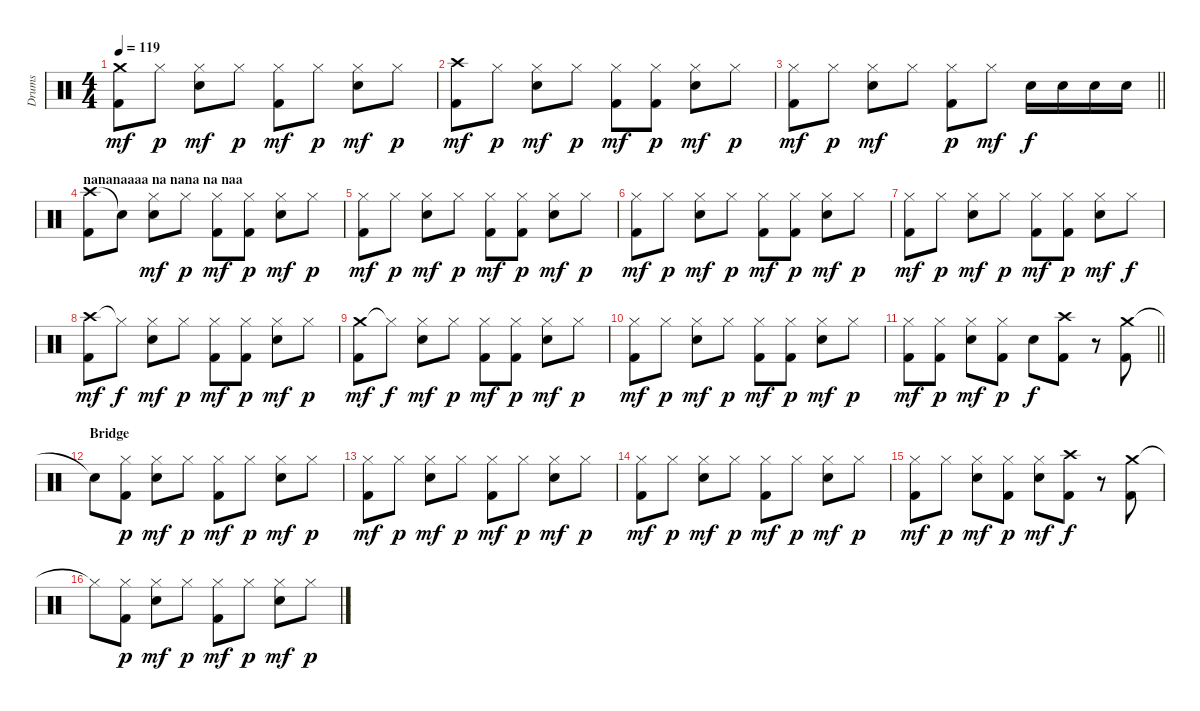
\track ("Drums" "Drums") {instrument percussion}
\staff {score}
\articulation defaults
\ts (4 4)
\tempo 119
\clef neutral
\ks c
("Crash medium (hit)" "Kick (hit) 2").8{dy mf} "Hi-Hat (closed)".8{dy p} ("Hi-Hat (closed)" "Electric Snare (hit)").8{dy mf} "Hi-Hat (closed)".8{dy p} ("Hi-Hat (closed)" "Kick (hit) 2").8{dy mf} "Hi-Hat (closed)".8{dy p} ("Hi-Hat (closed)" "Electric Snare (hit)").8{dy mf} "Hi-Hat (closed)".8{dy p} |
("Crash high (hit)" "Kick (hit) 2").8{dy mf} "Hi-Hat (closed)".8{dy p} ("Hi-Hat (closed)" "Electric Snare (hit)").8{dy mf} "Hi-Hat (closed)".8{dy p} ("Hi-Hat (closed)" "Kick (hit) 2").8{dy mf} ("Hi-Hat (closed)" "Kick (hit) 2").8{dy p} ("Hi-Hat (closed)" "Electric Snare (hit)").8{dy mf} "Hi-Hat (closed)".8{dy p} |
\barLineRight lightlight
("Hi-Hat (closed)" "Kick (hit) 2").8{dy mf} "Hi-Hat (closed)".8{dy p} ("Hi-Hat (closed)" "Electric Snare (hit)").8{dy mf} "Hi-Hat (closed)".8 ("Hi-Hat (closed)" "Kick (hit) 2").8{dy p} "Hi-Hat (closed)".8{dy mf} "Electric Snare (hit)".16{dy f} "Electric Snare (hit)".16 "Electric Snare (hit)".16 "Electric Snare (hit)".16 |
\section ("" "nananaaaa na nana na naa")
("Crash high (hit)" "Kick (hit) 2").8 "Snare (hit)"{t}.8 ("Hi-Hat (closed)" "Electric Snare (hit)").8{dy mf} "Hi-Hat (closed)".8{dy p} ("Hi-Hat (closed)" "Kick (hit) 2").8{dy mf} ("Hi-Hat (closed)" "Kick (hit) 2").8{dy p} ("Hi-Hat (closed)" "Electric Snare (hit)").8{dy mf} "Hi-Hat (closed)".8{dy p} |
("Hi-Hat (closed)" "Kick (hit) 2").8{dy mf} "Hi-Hat (closed)".8{dy p} ("Hi-Hat (closed)" "Electric Snare (hit)").8{dy mf} "Hi-Hat (closed)".8{dy p} ("Hi-Hat (closed)" "Kick (hit) 2").8{dy mf} ("Hi-Hat (closed)" "Kick (hit) 2").8{dy p} ("Hi-Hat (closed)" "Electric Snare (hit)").8{dy mf} "Hi-Hat (closed)".8{dy p} |
("Hi-Hat (closed)" "Kick (hit) 2").8{dy mf} "Hi-Hat (closed)".8{dy p} ("Hi-Hat (closed)" "Electric Snare (hit)").8{dy mf} "Hi-Hat (closed)".8{dy p} ("Hi-Hat (closed)" "Kick (hit) 2").8{dy mf} ("Hi-Hat (closed)" "Kick (hit) 2").8{dy p} ("Hi-Hat (closed)" "Electric Snare (hit)").8{dy mf} "Hi-Hat (closed)".8{dy p} |
("Hi-Hat (closed)" "Kick (hit) 2").8{dy mf} "Hi-Hat (closed)".8{dy p} ("Hi-Hat (closed)" "Electric Snare (hit)").8{dy mf} "Hi-Hat (closed)".8{dy p} ("Hi-Hat (closed)" "Kick (hit) 2").8{dy mf} ("Hi-Hat (closed)" "Kick (hit) 2").8{dy p} ("Hi-Hat (closed)" "Electric Snare (hit)").8{dy mf} "Hi-Hat (closed)".8{dy f} |
("Crash high (hit)" "Kick (hit) 2").8{dy mf} "Hi-Hat (closed)"{t}.8{dy f} ("Hi-Hat (closed)" "Electric Snare (hit)").8{dy mf} "Hi-Hat (closed)".8{dy p} ("Hi-Hat (closed)" "Kick (hit) 2").8{dy mf} ("Hi-Hat (closed)" "Kick (hit) 2").8{dy p} ("Hi-Hat (closed)" "Electric Snare (hit)").8{dy mf} "Hi-Hat (closed)".8{dy p} |
("Crash medium (hit)" "Kick (hit) 2").8{dy mf} "Hi-Hat (closed)"{t}.8{dy f} ("Hi-Hat (closed)" "Electric Snare (hit)").8{dy mf} "Hi-Hat (closed)".8{dy p} ("Hi-Hat (closed)" "Kick (hit) 2").8{dy mf} ("Hi-Hat (closed)" "Kick (hit) 2").8{dy p} ("Hi-Hat (closed)" "Electric Snare (hit)").8{dy mf} "Hi-Hat (closed)".8{dy p} |
("Hi-Hat (closed)" "Kick (hit) 2").8{dy mf} "Hi-Hat (closed)".8{dy p} ("Hi-Hat (closed)" "Electric Snare (hit)").8{dy mf} "Hi-Hat (closed)".8{dy p} ("Hi-Hat (closed)" "Kick (hit) 2").8{dy mf} ("Hi-Hat (closed)" "Kick (hit) 2").8{dy p} ("Hi-Hat (closed)" "Electric Snare (hit)").8{dy mf} "Hi-Hat (closed)".8{dy p} |
\barLineRight lightlight
("Hi-Hat (closed)" "Kick (hit) 2").8{dy mf} ("Hi-Hat (closed)" "Kick (hit) 2").8{dy p} ("Hi-Hat (closed)" "Electric Snare (hit)").8{dy mf} ("Hi-Hat (closed)" "Kick (hit) 2").8{dy p} "Electric Snare (hit)".8{dy f} ("Crash high (hit)" "Kick (hit) 2").8 r.8 ("Crash medium (hit)" "Kick (hit) 2").8 |
\section ("" "Bridge")
"Snare (hit)"{t}.8 ("Hi-Hat (closed)" "Kick (hit) 2").8{dy p} ("Hi-Hat (closed)" "Electric Snare (hit)").8{dy mf} "Hi-Hat (closed)".8{dy p} ("Hi-Hat (closed)" "Kick (hit) 2").8{dy mf} "Hi-Hat (closed)".8{dy p} ("Hi-Hat (closed)" "Electric Snare (hit)").8{dy mf} "Hi-Hat (closed)".8{dy p} |
("Hi-Hat (closed)" "Kick (hit) 2").8{dy mf} "Hi-Hat (closed)".8{dy p} ("Hi-Hat (closed)" "Electric Snare (hit)").8{dy mf} "Hi-Hat (closed)".8{dy p} ("Hi-Hat (closed)" "Kick (hit) 2").8{dy mf} "Hi-Hat (closed)".8{dy p} ("Hi-Hat (closed)" "Electric Snare (hit)").8{dy mf} "Hi-Hat (closed)".8{dy p} |
("Hi-Hat (closed)" "Kick (hit) 2").8{dy mf} "Hi-Hat (closed)".8{dy p} ("Hi-Hat (closed)" "Electric Snare (hit)").8{dy mf} "Hi-Hat (closed)".8{dy p} ("Hi-Hat (closed)" "Kick (hit) 2").8{dy mf} "Hi-Hat (closed)".8{dy p} ("Hi-Hat (closed)" "Electric Snare (hit)").8{dy mf} "Hi-Hat (closed)".8{dy p} |
("Hi-Hat (closed)" "Kick (hit) 2").8{dy mf} "Hi-Hat (closed)".8{dy p} ("Hi-Hat (closed)" "Electric Snare (hit)").8{dy mf} ("Hi-Hat (closed)" "Kick (hit) 2").8{dy p} ("Hi-Hat (closed)" "Electric Snare (hit)").8{dy mf} ("Crash high (hit)" "Kick (hit) 2").8{dy f} r.8 ("Crash medium (hit)" "Kick (hit) 2").8 |
"Hi-Hat (closed)"{t}.8 ("Hi-Hat (closed)" "Kick (hit) 2").8{dy p} ("Hi-Hat (closed)" "Electric Snare (hit)").8{dy mf} "Hi-Hat (closed)".8{dy p} ("Hi-Hat (closed)" "Kick (hit) 2").8{dy mf} "Hi-Hat (closed)".8{dy p} ("Hi-Hat (closed)" "Electric Snare (hit)").8{dy mf} "Hi-Hat (closed)".8{dy p}
